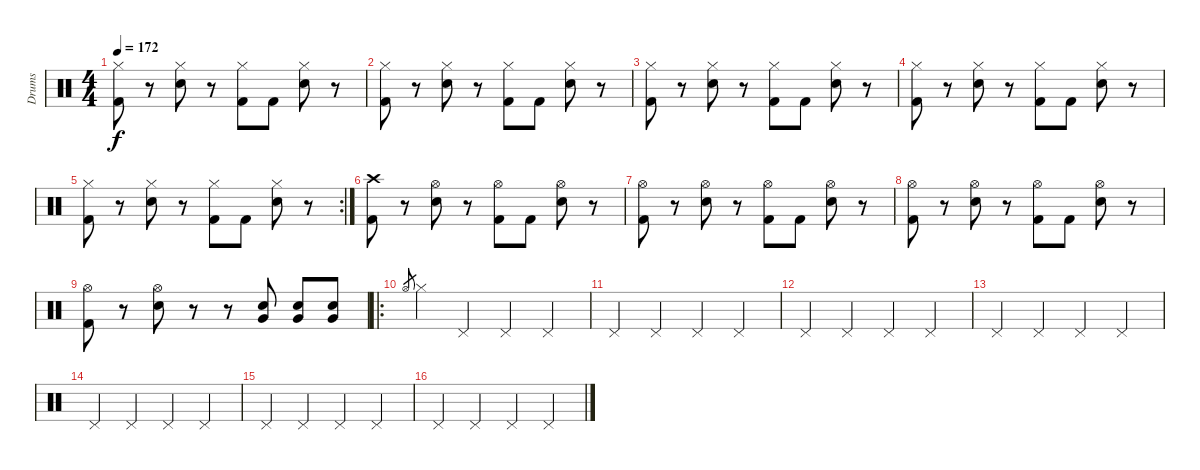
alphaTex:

\track ("Drums" "Drums") {instrument percussion}
\staff {score}
\articulation defaults
\ts (4 4)
\tempo 172
\clef neutral
\ks c
("Hi-Hat (closed)" "Kick (hit) 2").8{dy f} r.8 ("Hi-Hat (closed)" "Snare (hit) 2").8 r.8 ("Hi-Hat (closed)" "Kick (hit) 2").8 "Kick (hit) 2".8 ("Hi-Hat (closed)" "Snare (hit) 2").8 r.8 |
("Hi-Hat (closed)" "Kick (hit) 2").8 r.8 ("Hi-Hat (closed)" "Snare (hit) 2").8 r.8 ("Hi-Hat (closed)" "Kick (hit) 2").8 "Kick (hit) 2".8 ("Hi-Hat (closed)" "Snare (hit) 2").8 r.8 |
("Hi-Hat (closed)" "Kick (hit) 2").8 r.8 ("Hi-Hat (closed)" "Snare (hit) 2").8 r.8 ("Hi-Hat (closed)" "Kick (hit) 2").8 "Kick (hit) 2".8 ("Hi-Hat (closed)" "Snare (hit) 2").8 r.8 |
("Hi-Hat (closed)" "Kick (hit) 2").8 r.8 ("Hi-Hat (closed)" "Snare (hit) 2").8 r.8 ("Hi-Hat (closed)" "Kick (hit) 2").8 "Kick (hit) 2".8 ("Hi-Hat (closed)" "Snare (hit) 2").8 r.8 |
\rc 2
("Hi-Hat (closed)" "Kick (hit) 2").8 r.8 ("Hi-Hat (closed)" "Snare (hit) 2").8 r.8 ("Hi-Hat (closed)" "Kick (hit) 2").8 "Kick (hit) 2".8 ("Hi-Hat (closed)" "Snare (hit) 2").8 r.8 |
("Crash high (hit)" "Kick (hit) 2").8 r.8 ("Hi-Hat (open)" "Snare (hit) 2").8 r.8 ("Hi-Hat (open)" "Kick (hit) 2").8 "Kick (hit) 2".8 ("Hi-Hat (open)" "Snare (hit) 2").8 r.8 |
("Hi-Hat (open)" "Kick (hit) 2").8 r.8 ("Hi-Hat (open)" "Snare (hit) 2").8 r.8 ("Hi-Hat (open)" "Kick (hit) 2").8 "Kick (hit) 2".8 ("Hi-Hat (open)" "Snare (hit) 2").8 r.8 |
("Hi-Hat (open)" "Kick (hit) 2").8 r.8 ("Hi-Hat (open)" "Snare (hit) 2").8 r.8 ("Hi-Hat (open)" "Kick (hit) 2").8 "Kick (hit) 2".8 ("Hi-Hat (open)" "Snare (hit) 2").8 r.8 |
("Hi-Hat (open)" "Kick (hit) 2").8 r.8 ("Hi-Hat (open)" "Snare (hit) 2").8 r.8 r.8 ("Very Low Tom (hit)" "Snare (hit) 2").8 ("Very Low Tom (hit)" "Snare (hit) 2").8 ("Very Low Tom (hit)" "Snare (hit) 2").8 |
\ro "Hi-Hat (open)".8{gr} "Hi-Hat (closed)".4 "Pedal Hi-Hat (hit)".4{volume 10} "Pedal Hi-Hat (hit)".4 "Pedal Hi-Hat (hit)".4
|
"Pedal Hi-Hat (hit)".4 "Pedal Hi-Hat (hit)".4 "Pedal Hi-Hat (hit)".4 "Pedal Hi-Hat (hit)".4 |
"Pedal Hi-Hat (hit)".4 "Pedal Hi-Hat (hit)".4 "Pedal Hi-Hat (hit)".4 "Pedal Hi-Hat (hit)".4 |
"Pedal Hi-Hat (hit)".4 "Pedal Hi-Hat (hit)".4 "Pedal Hi-Hat (hit)".4 "Pedal Hi-Hat (hit)".4 |
"Pedal Hi-Hat (hit)".4 "Pedal Hi-Hat (hit)".4 "Pedal Hi-Hat (hit)".4 "Pedal Hi-Hat (hit)".4 |
"Pedal Hi-Hat (hit)".4 "Pedal Hi-Hat (hit)".4 "Pedal Hi-Hat (hit)".4 "Pedal Hi-Hat (hit)".4 |
"Pedal Hi-Hat (hit)".4 "Pedal Hi-Hat (hit)".4 "Pedal Hi-Hat (hit)".4 "Pedal Hi-Hat (hit)".4
